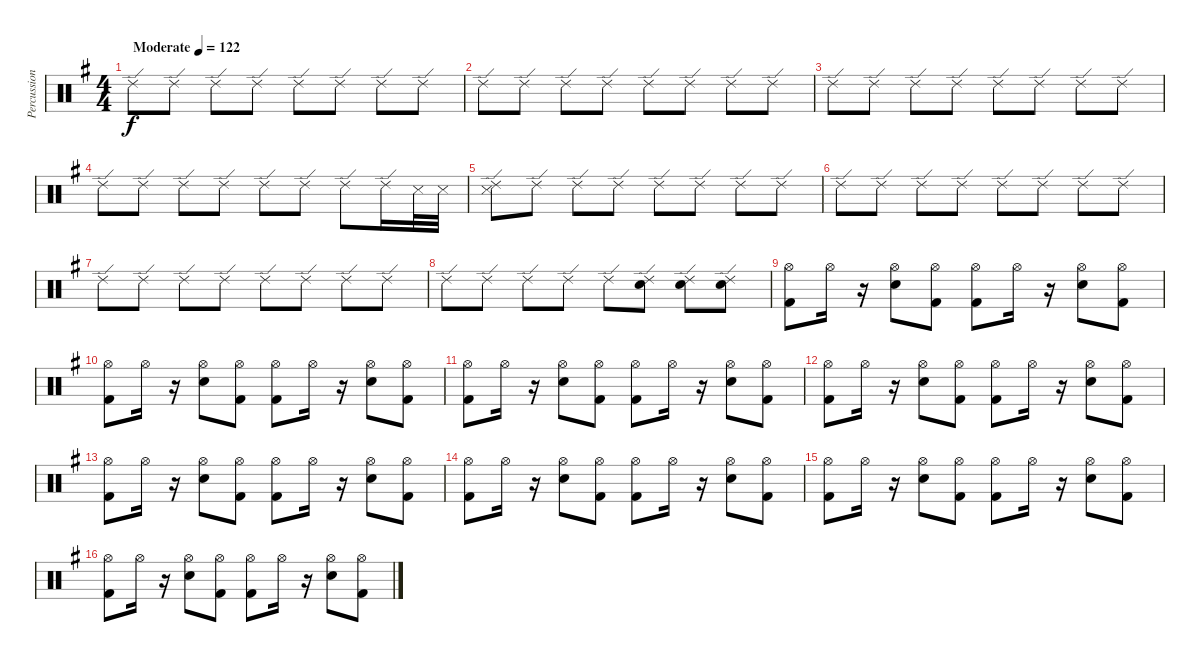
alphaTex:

\track ("Percussion" "Percussion") {instrument percussion}
\staff {score}
\articulation defaults
\ts (4 4)
\tempo (122 "Moderate")
\clef neutral
\ks g "Ride (edge) 2".8{dy f} "Ride (edge) 2".8 "Ride (edge) 2".8 "Ride (edge) 2".8 "Ride (edge) 2".8 "Ride (edge) 2".8 "Ride (edge) 2".8 "Ride (edge) 2".8
|
"Ride (edge) 2".8 "Ride (edge) 2".8 "Ride (edge) 2".8 "Ride (edge) 2".8 "Ride (edge) 2".8 "Ride (edge) 2".8 "Ride (edge) 2".8 "Ride (edge) 2".8 |
"Ride (edge) 2".8 "Ride (edge) 2".8 "Ride (edge) 2".8 "Ride (edge) 2".8 "Ride (edge) 2".8 "Ride (edge) 2".8 "Ride (edge) 2".8 "Ride (edge) 2".8 |
"Ride (edge) 2".8 "Ride (edge) 2".8 "Ride (edge) 2".8 "Ride (edge) 2".8 "Ride (edge) 2".8 "Ride (edge) 2".8 "Ride (edge) 2".8 "Ride (edge) 2".16 "Snare (side stick) 3".32 "Snare (side stick) 3".32 |
("Snare (side stick) 3" "Ride (edge) 2").8 "Ride (edge) 2".8 "Ride (edge) 2".8 "Ride (edge) 2".8 "Ride (edge) 2".8 "Ride (edge) 2".8 "Ride (edge) 2".8 "Ride (edge) 2".8 |
"Ride (edge) 2".8 "Ride (edge) 2".8 "Ride (edge) 2".8 "Ride (edge) 2".8 "Ride (edge) 2".8 "Ride (edge) 2".8 "Ride (edge) 2".8 "Ride (edge) 2".8 |
"Ride (edge) 2".8 "Ride (edge) 2".8 "Ride (edge) 2".8 "Ride (edge) 2".8 "Ride (edge) 2".8 "Ride (edge) 2".8 "Ride (edge) 2".8 "Ride (edge) 2".8 |
"Ride (edge) 2".8 "Ride (edge) 2".8 "Ride (edge) 2".8 "Ride (edge) 2".8 "Ride (edge) 2".8 ("Ride (edge) 2" "Electric Snare (hit)").8 ("Ride (edge) 2" "Electric Snare (hit)").8 ("Ride (edge) 2" "Electric Snare (hit)").8 |
("Kick (hit) 2" "Hi-Hat (open)").8 "Hi-Hat (open)".16 r.16 ("Electric Snare (hit)" "Hi-Hat (open)").8 ("Kick (hit) 2" "Hi-Hat (open)").8 ("Kick (hit) 2" "Hi-Hat (open)").8 "Hi-Hat (open)".16 r.16 ("Electric Snare (hit)" "Hi-Hat (open)").8 ("Kick (hit) 2" "Hi-Hat (open)").8 |
("Hi-Hat (open)" "Kick (hit) 2").8 "Hi-Hat (open)".16 r.16 ("Electric Snare (hit)" "Hi-Hat (open)").8 ("Kick (hit) 2" "Hi-Hat (open)").8 ("Kick (hit) 2" "Hi-Hat (open)").8 "Hi-Hat (open)".16 r.16 ("Electric Snare (hit)" "Hi-Hat (open)").8 ("Kick (hit) 2" "Hi-Hat (open)").8 |
("Hi-Hat (open)" "Kick (hit) 2").8 "Hi-Hat (open)".16 r.16 ("Electric Snare (hit)" "Hi-Hat (open)").8 ("Kick (hit) 2" "Hi-Hat (open)").8 ("Kick (hit) 2" "Hi-Hat (open)").8 "Hi-Hat (open)".16 r.16 ("Electric Snare (hit)" "Hi-Hat (open)").8 ("Kick (hit) 2" "Hi-Hat (open)").8 |
("Hi-Hat (open)" "Kick (hit) 2").8 "Hi-Hat (open)".16 r.16 ("Electric Snare (hit)" "Hi-Hat (open)").8 ("Kick (hit) 2" "Hi-Hat (open)").8 ("Kick (hit) 2" "Hi-Hat (open)").8 "Hi-Hat (open)".16 r.16 ("Electric Snare (hit)" "Hi-Hat (open)").8 ("Kick (hit) 2" "Hi-Hat (open)").8 |
("Kick (hit) 2" "Hi-Hat (open)").8 "Hi-Hat (open)".16 r.16 ("Electric Snare (hit)" "Hi-Hat (open)").8 ("Kick (hit) 2" "Hi-Hat (open)").8 ("Kick (hit) 2" "Hi-Hat (open)").8 "Hi-Hat (open)".16 r.16 ("Electric Snare (hit)" "Hi-Hat (open)").8 ("Kick (hit) 2" "Hi-Hat (open)").8 |
("Kick (hit) 2" "Hi-Hat (open)").8 "Hi-Hat (open)".16 r.16 ("Electric Snare (hit)" "Hi-Hat (open)").8 ("Kick (hit) 2" "Hi-Hat (open)").8 ("Kick (hit) 2" "Hi-Hat (open)").8 "Hi-Hat (open)".16 r.16 ("Electric Snare (hit)" "Hi-Hat (open)").8 ("Kick (hit) 2" "Hi-Hat (open)").8 |
("Kick (hit) 2" "Hi-Hat (open)").8 "Hi-Hat (open)".16 r.16 ("Electric Snare (hit)" "Hi-Hat (open)").8 ("Kick (hit) 2" "Hi-Hat (open)").8 ("Kick (hit) 2" "Hi-Hat (open)").8 "Hi-Hat (open)".16 r.16 ("Electric Snare (hit)" "Hi-Hat (open)").8 ("Kick (hit) 2" "Hi-Hat (open)").8 |
("Kick (hit) 2" "Hi-Hat (open)").8 "Hi-Hat (open)".16 r.16 ("Electric Snare (hit)" "Hi-Hat (open)").8 ("Kick (hit) 2" "Hi-Hat (open)").8 ("Kick (hit) 2" "Hi-Hat (open)").8 "Hi-Hat (open)".16 r.16 ("Electric Snare (hit)" "Hi-Hat (open)").8 ("Kick (hit) 2" "Hi-Hat (open)").8
